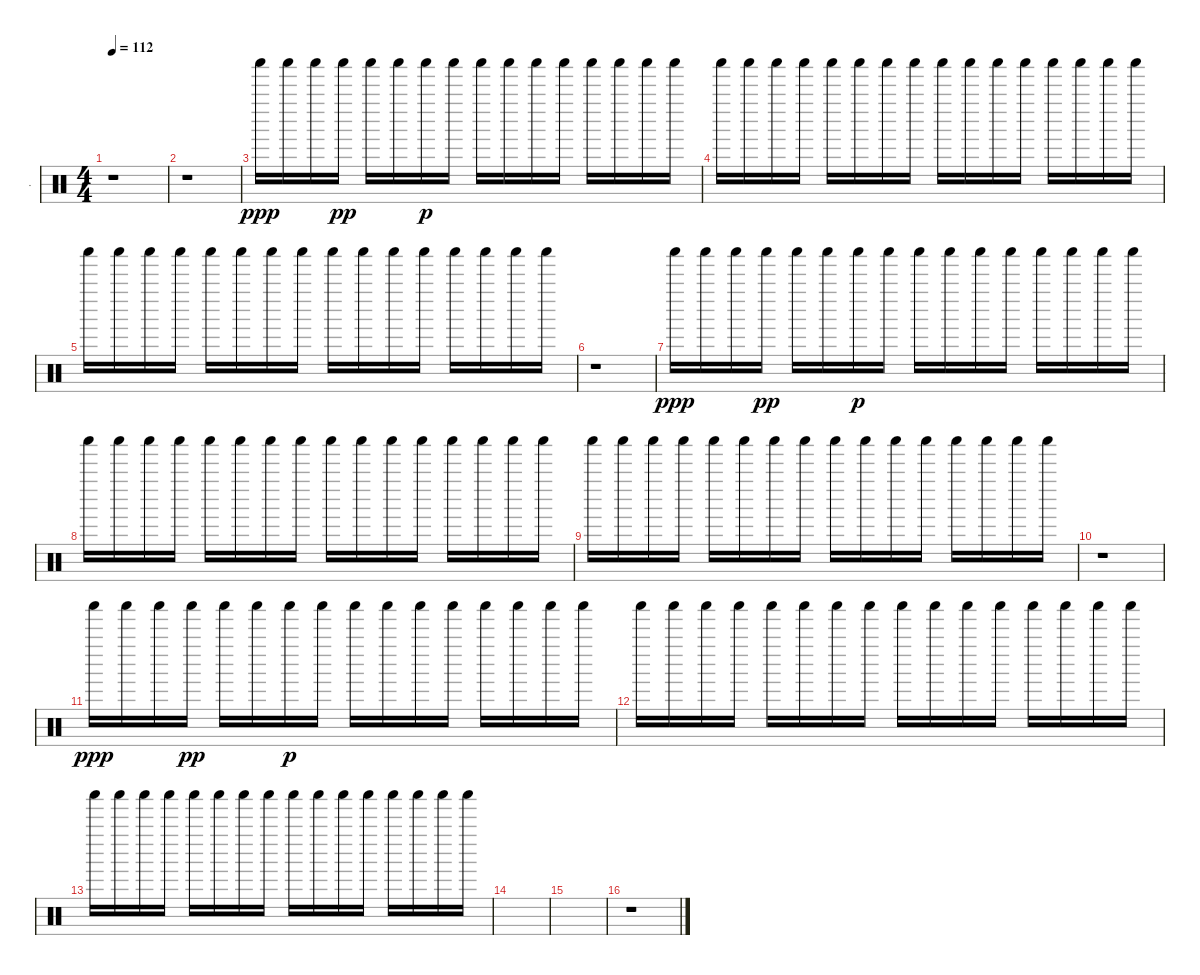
\track ("." ".") {instrument percussion}
\staff {score}
\articulation defaults
\ts (4 4)
\tempo 112
\clef neutral
\ks c
r.1{dy p} |
r.1 |
"Shaker (hit)".16{dy ppp} "Shaker (hit)".16 "Shaker (hit)".16 "Shaker (hit)".16{dy pp} "Shaker (hit)".16 "Shaker (hit)".16 "Shaker (hit)".16{dy p} "Shaker (hit)".16 "Shaker (hit)".16 "Shaker (hit)".16 "Shaker (hit)".16 "Shaker (hit)".16 "Shaker (hit)".16 "Shaker (hit)".16 "Shaker (hit)".16 "Shaker (hit)".16 |
"Shaker (hit)".16 "Shaker (hit)".16 "Shaker (hit)".16 "Shaker (hit)".16 "Shaker (hit)".16 "Shaker (hit)".16 "Shaker (hit)".16 "Shaker (hit)".16 "Shaker (hit)".16 "Shaker (hit)".16 "Shaker (hit)".16 "Shaker (hit)".16 "Shaker (hit)".16 "Shaker (hit)".16 "Shaker (hit)".16 "Shaker (hit)".16 |
"Shaker (hit)".16 "Shaker (hit)".16 "Shaker (hit)".16 "Shaker (hit)".16 "Shaker (hit)".16 "Shaker (hit)".16 "Shaker (hit)".16 "Shaker (hit)".16 "Shaker (hit)".16 "Shaker (hit)".16 "Shaker (hit)".16 "Shaker (hit)".16 "Shaker (hit)".16 "Shaker (hit)".16 "Shaker (hit)".16 "Shaker (hit)".16 |
r.1 |
"Shaker (hit)".16{dy ppp} "Shaker (hit)".16 "Shaker (hit)".16 "Shaker (hit)".16{dy pp} "Shaker (hit)".16 "Shaker (hit)".16 "Shaker (hit)".16{dy p} "Shaker (hit)".16 "Shaker (hit)".16 "Shaker (hit)".16 "Shaker (hit)".16 "Shaker (hit)".16 "Shaker (hit)".16 "Shaker (hit)".16 "Shaker (hit)".16 "Shaker (hit)".16 |
"Shaker (hit)".16 "Shaker (hit)".16 "Shaker (hit)".16 "Shaker (hit)".16 "Shaker (hit)".16 "Shaker (hit)".16 "Shaker (hit)".16 "Shaker (hit)".16 "Shaker (hit)".16 "Shaker (hit)".16 "Shaker (hit)".16 "Shaker (hit)".16 "Shaker (hit)".16 "Shaker (hit)".16 "Shaker (hit)".16 "Shaker (hit)".16 |
"Shaker (hit)".16 "Shaker (hit)".16 "Shaker (hit)".16 "Shaker (hit)".16 "Shaker (hit)".16 "Shaker (hit)".16 "Shaker (hit)".16 "Shaker (hit)".16 "Shaker (hit)".16 "Shaker (hit)".16 "Shaker (hit)".16 "Shaker (hit)".16 "Shaker (hit)".16 "Shaker (hit)".16 "Shaker (hit)".16 "Shaker (hit)".16 |
r.1 |
"Shaker (hit)".16{dy ppp} "Shaker (hit)".16 "Shaker (hit)".16 "Shaker (hit)".16{dy pp} "Shaker (hit)".16 "Shaker (hit)".16 "Shaker (hit)".16{dy p} "Shaker (hit)".16 "Shaker (hit)".16 "Shaker (hit)".16 "Shaker (hit)".16 "Shaker (hit)".16 "Shaker (hit)".16 "Shaker (hit)".16 "Shaker (hit)".16 "Shaker (hit)".16 |
"Shaker (hit)".16 "Shaker (hit)".16 "Shaker (hit)".16 "Shaker (hit)".16 "Shaker (hit)".16 "Shaker (hit)".16 "Shaker (hit)".16 "Shaker (hit)".16 "Shaker (hit)".16 "Shaker (hit)".16 "Shaker (hit)".16 "Shaker (hit)".16 "Shaker (hit)".16 "Shaker (hit)".16 "Shaker (hit)".16 "Shaker (hit)".16 |
"Shaker (hit)".16 "Shaker (hit)".16 "Shaker (hit)".16 "Shaker (hit)".16 "Shaker (hit)".16 "Shaker (hit)".16 "Shaker (hit)".16 "Shaker (hit)".16 "Shaker (hit)".16 "Shaker (hit)".16 "Shaker (hit)".16 "Shaker (hit)".16 "Shaker (hit)".16 "Shaker (hit)".16 "Shaker (hit)".16 "Shaker (hit)".16 |
|
|
r.1
